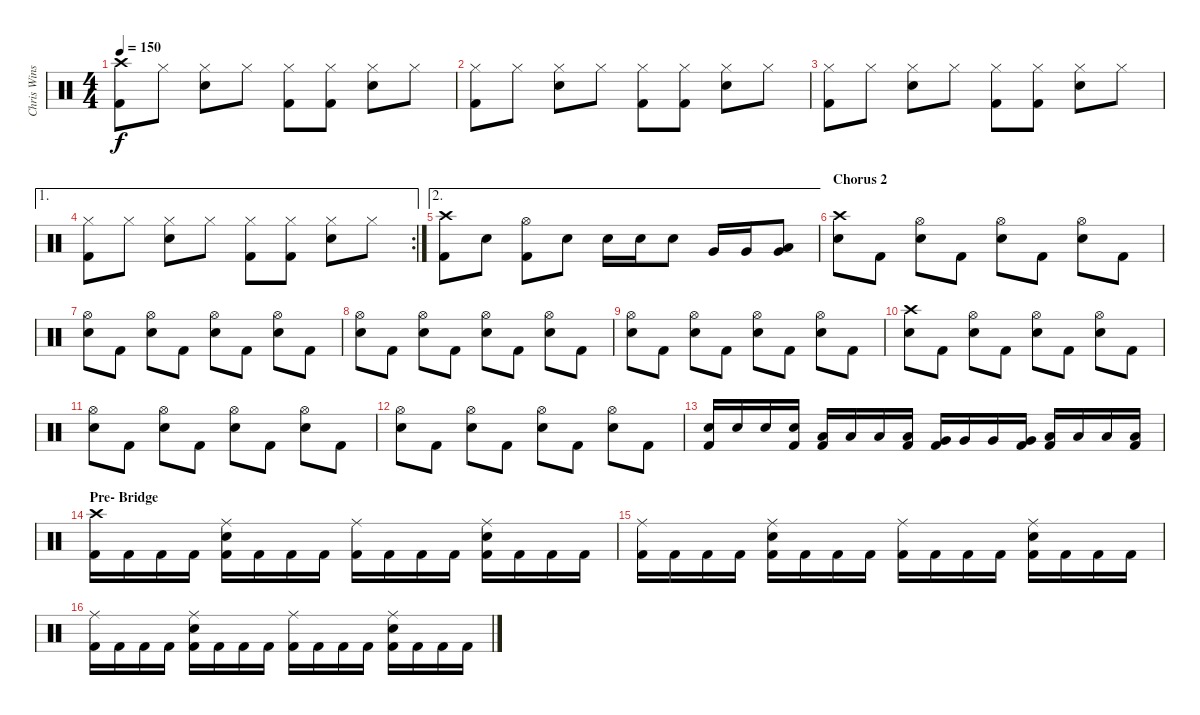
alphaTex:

\track ("Chris Winship (Drums)" "Chris Wins") {instrument percussion}
\staff {score}
\articulation defaults
\ts (4 4)
\tempo 150
\clef neutral
\ks c
("Crash high (hit)" "Kick (hit) 2").8{dy f} "Hi-Hat (closed)".8 ("Hi-Hat (closed)" "Electric Snare (hit)").8 "Hi-Hat (closed)".8 ("Hi-Hat (closed)" "Kick (hit) 2").8 ("Hi-Hat (closed)" "Kick (hit) 2").8 ("Hi-Hat (closed)" "Electric Snare (hit)").8 "Hi-Hat (closed)".8 |
("Hi-Hat (closed)" "Kick (hit) 2").8 "Hi-Hat (closed)".8 ("Hi-Hat (closed)" "Electric Snare (hit)").8 "Hi-Hat (closed)".8 ("Hi-Hat (closed)" "Kick (hit) 2").8 ("Hi-Hat (closed)" "Kick (hit) 2").8 ("Hi-Hat (closed)" "Electric Snare (hit)").8 "Hi-Hat (closed)".8 |
("Hi-Hat (closed)" "Kick (hit) 2").8 "Hi-Hat (closed)".8 ("Hi-Hat (closed)" "Electric Snare (hit)").8 "Hi-Hat (closed)".8 ("Hi-Hat (closed)" "Kick (hit) 2").8 ("Hi-Hat (closed)" "Kick (hit) 2").8 ("Hi-Hat (closed)" "Electric Snare (hit)").8 "Hi-Hat (closed)".8 |
\ae 1
\rc 2
("Hi-Hat (closed)" "Kick (hit) 2").8 "Hi-Hat (closed)".8 ("Hi-Hat (closed)" "Electric Snare (hit)").8 "Hi-Hat (closed)".8 ("Hi-Hat (closed)" "Kick (hit) 2").8 ("Hi-Hat (closed)" "Kick (hit) 2").8 ("Hi-Hat (closed)" "Electric Snare (hit)").8 "Hi-Hat (closed)".8 |
\ae 2
("Crash high (hit)" "Kick (hit) 2").8 "Electric Snare (hit)".8 ("Hi-Hat (open)" "Kick (hit) 2").8 "Electric Snare (hit)".8 "Electric Snare (hit)".16 "Electric Snare (hit)".16 "Electric Snare (hit)".8 "Very Low Tom (hit)".16 "Very Low Tom (hit)".16 ("Low Floor Tom (hit)" "Very Low Tom (hit)").8 |
\section ("" "Chorus 2")
("Crash high (hit)" "Electric Snare (hit)").8 "Kick (hit) 2".8 ("Hi-Hat (open)" "Electric Snare (hit)").8 "Kick (hit) 2".8 ("Hi-Hat (open)" "Electric Snare (hit)").8 "Kick (hit) 2".8 ("Hi-Hat (open)" "Electric Snare (hit)").8 "Kick (hit) 2".8 |
("Hi-Hat (open)" "Electric Snare (hit)").8 "Kick (hit) 2".8 ("Hi-Hat (open)" "Electric Snare (hit)").8 "Kick (hit) 2".8 ("Hi-Hat (open)" "Electric Snare (hit)").8 "Kick (hit) 2".8 ("Hi-Hat (open)" "Electric Snare (hit)").8 "Kick (hit) 2".8 |
("Hi-Hat (open)" "Electric Snare (hit)").8 "Kick (hit) 2".8 ("Hi-Hat (open)" "Electric Snare (hit)").8 "Kick (hit) 2".8 ("Hi-Hat (open)" "Electric Snare (hit)").8 "Kick (hit) 2".8 ("Hi-Hat (open)" "Electric Snare (hit)").8 "Kick (hit) 2".8 |
("Hi-Hat (open)" "Electric Snare (hit)").8 "Kick (hit) 2".8 ("Hi-Hat (open)" "Electric Snare (hit)").8 "Kick (hit) 2".8 ("Hi-Hat (open)" "Electric Snare (hit)").8 "Kick (hit) 2".8 ("Hi-Hat (open)" "Electric Snare (hit)").8 "Kick (hit) 2".8 |
("Crash high (hit)" "Electric Snare (hit)").8 "Kick (hit) 2".8 ("Hi-Hat (open)" "Electric Snare (hit)").8 "Kick (hit) 2".8 ("Hi-Hat (open)" "Electric Snare (hit)").8 "Kick (hit) 2".8 ("Hi-Hat (open)" "Electric Snare (hit)").8 "Kick (hit) 2".8 |
("Hi-Hat (open)" "Electric Snare (hit)").8 "Kick (hit) 2".8 ("Hi-Hat (open)" "Electric Snare (hit)").8 "Kick (hit) 2".8 ("Hi-Hat (open)" "Electric Snare (hit)").8 "Kick (hit) 2".8 ("Hi-Hat (open)" "Electric Snare (hit)").8 "Kick (hit) 2".8 |
("Hi-Hat (open)" "Electric Snare (hit)").8 "Kick (hit) 2".8 ("Hi-Hat (open)" "Electric Snare (hit)").8 "Kick (hit) 2".8 ("Hi-Hat (open)" "Electric Snare (hit)").8 "Kick (hit) 2".8 ("Hi-Hat (open)" "Electric Snare (hit)").8 "Kick (hit) 2".8 |
("Electric Snare (hit)" "Kick (hit) 2").16 "Electric Snare (hit)".16 "Electric Snare (hit)".16 ("Electric Snare (hit)" "Kick (hit) 2").16 ("Low Tom (hit)" "Kick (hit) 2").16 "Low Tom (hit)".16 "Low Tom (hit)".16 ("Low Tom (hit)" "Kick (hit) 2").16 ("Very Low Tom (hit)" "Kick (hit) 2").16 "Very Low Tom (hit)".16 "Very Low Tom (hit)".16 ("Very Low Tom (hit)" "Kick (hit) 2").16 ("Low Floor Tom (hit)" "Kick (hit) 2").16 "Low Floor Tom (hit)".16 "Low Floor Tom (hit)".16 ("Low Floor Tom (hit)" "Kick (hit) 2").16 |
\section ("" "Pre- Bridge")
("Crash high (hit)" "Kick (hit) 2").16 "Kick (hit) 2".16 "Kick (hit) 2".16 "Kick (hit) 2".16 ("Ride (middle)" "Electric Snare (hit)" "Kick (hit) 2").16 "Kick (hit) 2".16 "Kick (hit) 2".16 "Kick (hit) 2".16 ("Ride (middle)" "Kick (hit) 2").16 "Kick (hit) 2".16 "Kick (hit) 2".16 "Kick (hit) 2".16 ("Ride (middle)" "Electric Snare (hit)" "Kick (hit) 2").16 "Kick (hit) 2".16 "Kick (hit) 2".16 "Kick (hit) 2".16 |
("Ride (middle)" "Kick (hit) 2").16 "Kick (hit) 2".16 "Kick (hit) 2".16 "Kick (hit) 2".16 ("Ride (middle)" "Electric Snare (hit)" "Kick (hit) 2").16 "Kick (hit) 2".16 "Kick (hit) 2".16 "Kick (hit) 2".16 ("Ride (middle)" "Kick (hit) 2").16 "Kick (hit) 2".16 "Kick (hit) 2".16 "Kick (hit) 2".16 ("Ride (middle)" "Electric Snare (hit)" "Kick (hit) 2").16 "Kick (hit) 2".16 "Kick (hit) 2".16 "Kick (hit) 2".16 |
("Ride (middle)" "Kick (hit) 2").16 "Kick (hit) 2".16 "Kick (hit) 2".16 "Kick (hit) 2".16 ("Ride (middle)" "Electric Snare (hit)" "Kick (hit) 2").16 "Kick (hit) 2".16 "Kick (hit) 2".16 "Kick (hit) 2".16 ("Ride (middle)" "Kick (hit) 2").16 "Kick (hit) 2".16 "Kick (hit) 2".16 "Kick (hit) 2".16 ("Ride (middle)" "Electric Snare (hit)" "Kick (hit) 2").16 "Kick (hit) 2".16 "Kick (hit) 2".16 "Kick (hit) 2".16
